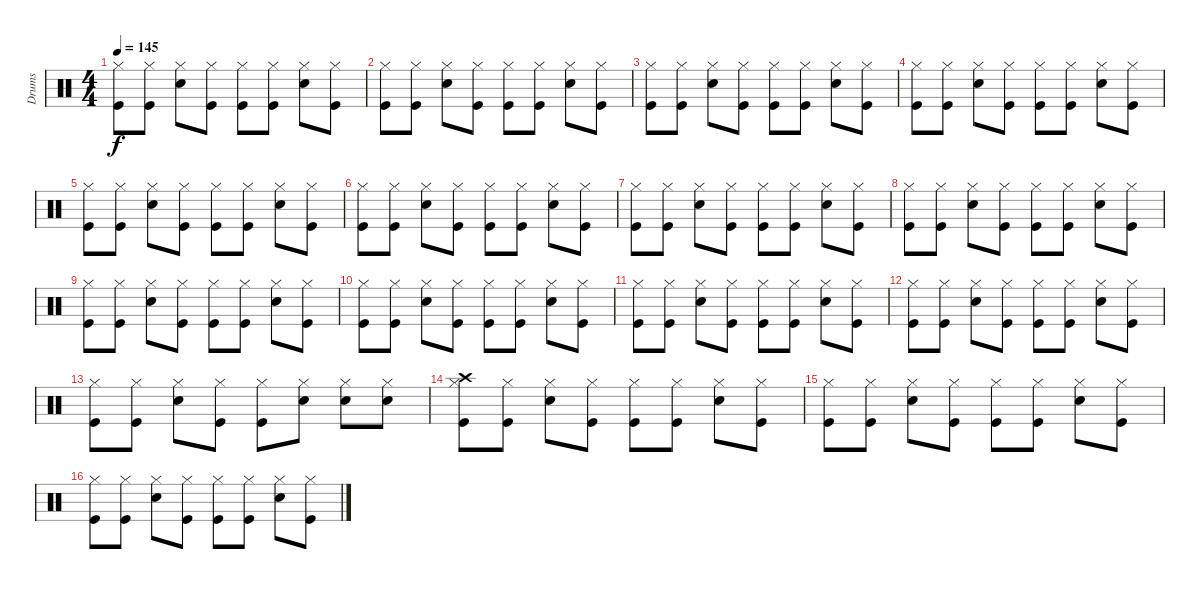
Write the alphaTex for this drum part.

\track ("Drums" "Drums") {instrument percussion}
\staff {score}
\articulation defaults
\ts (4 4)
\tempo 145
\clef neutral
\ks c
("Kick (hit)" "Hi-Hat (closed)").8{dy f} ("Kick (hit)" "Hi-Hat (closed)").8 ("Hi-Hat (closed)" "Snare (hit) 2").8 ("Kick (hit)" "Hi-Hat (closed)").8 ("Kick (hit)" "Hi-Hat (closed)").8 ("Kick (hit)" "Hi-Hat (closed)").8 ("Hi-Hat (closed)" "Snare (hit) 2").8 ("Kick (hit)" "Hi-Hat (closed)").8 |
("Kick (hit)" "Hi-Hat (closed)").8 ("Kick (hit)" "Hi-Hat (closed)").8 ("Hi-Hat (closed)" "Snare (hit) 2").8 ("Kick (hit)" "Hi-Hat (closed)").8 ("Kick (hit)" "Hi-Hat (closed)").8 ("Kick (hit)" "Hi-Hat (closed)").8 ("Hi-Hat (closed)" "Snare (hit) 2").8 ("Kick (hit)" "Hi-Hat (closed)").8 |
("Kick (hit)" "Hi-Hat (closed)").8 ("Kick (hit)" "Hi-Hat (closed)").8 ("Hi-Hat (closed)" "Snare (hit) 2").8 ("Kick (hit)" "Hi-Hat (closed)").8 ("Kick (hit)" "Hi-Hat (closed)").8 ("Kick (hit)" "Hi-Hat (closed)").8 ("Hi-Hat (closed)" "Snare (hit) 2").8 ("Kick (hit)" "Hi-Hat (closed)").8 |
("Kick (hit)" "Hi-Hat (closed)").8 ("Kick (hit)" "Hi-Hat (closed)").8 ("Hi-Hat (closed)" "Snare (hit) 2").8 ("Kick (hit)" "Hi-Hat (closed)").8 ("Kick (hit)" "Hi-Hat (closed)").8 ("Kick (hit)" "Hi-Hat (closed)").8 ("Hi-Hat (closed)" "Snare (hit) 2").8 ("Kick (hit)" "Hi-Hat (closed)").8 |
("Kick (hit)" "Hi-Hat (closed)").8 ("Kick (hit)" "Hi-Hat (closed)").8 ("Hi-Hat (closed)" "Snare (hit) 2").8 ("Kick (hit)" "Hi-Hat (closed)").8 ("Kick (hit)" "Hi-Hat (closed)").8 ("Kick (hit)" "Hi-Hat (closed)").8 ("Hi-Hat (closed)" "Snare (hit) 2").8 ("Kick (hit)" "Hi-Hat (closed)").8 |
("Kick (hit)" "Hi-Hat (closed)").8 ("Kick (hit)" "Hi-Hat (closed)").8 ("Hi-Hat (closed)" "Snare (hit) 2").8 ("Kick (hit)" "Hi-Hat (closed)").8 ("Kick (hit)" "Hi-Hat (closed)").8 ("Kick (hit)" "Hi-Hat (closed)").8 ("Hi-Hat (closed)" "Snare (hit) 2").8 ("Kick (hit)" "Hi-Hat (closed)").8 |
("Kick (hit)" "Hi-Hat (closed)").8 ("Kick (hit)" "Hi-Hat (closed)").8 ("Hi-Hat (closed)" "Snare (hit) 2").8 ("Kick (hit)" "Hi-Hat (closed)").8 ("Kick (hit)" "Hi-Hat (closed)").8 ("Kick (hit)" "Hi-Hat (closed)").8 ("Hi-Hat (closed)" "Snare (hit) 2").8 ("Kick (hit)" "Hi-Hat (closed)").8 |
("Kick (hit)" "Hi-Hat (closed)").8 ("Kick (hit)" "Hi-Hat (closed)").8 ("Hi-Hat (closed)" "Snare (hit) 2").8 ("Kick (hit)" "Hi-Hat (closed)").8 ("Kick (hit)" "Hi-Hat (closed)").8 ("Kick (hit)" "Hi-Hat (closed)").8 ("Hi-Hat (closed)" "Snare (hit) 2").8 ("Kick (hit)" "Hi-Hat (closed)").8 |
("Kick (hit)" "Hi-Hat (closed)").8 ("Kick (hit)" "Hi-Hat (closed)").8 ("Hi-Hat (closed)" "Snare (hit) 2").8 ("Kick (hit)" "Hi-Hat (closed)").8 ("Kick (hit)" "Hi-Hat (closed)").8 ("Kick (hit)" "Hi-Hat (closed)").8 ("Hi-Hat (closed)" "Snare (hit) 2").8 ("Kick (hit)" "Hi-Hat (closed)").8 |
("Kick (hit)" "Hi-Hat (closed)").8 ("Kick (hit)" "Hi-Hat (closed)").8 ("Hi-Hat (closed)" "Snare (hit) 2").8 ("Kick (hit)" "Hi-Hat (closed)").8 ("Kick (hit)" "Hi-Hat (closed)").8 ("Kick (hit)" "Hi-Hat (closed)").8 ("Hi-Hat (closed)" "Snare (hit) 2").8 ("Kick (hit)" "Hi-Hat (closed)").8 |
("Kick (hit)" "Hi-Hat (closed)").8 ("Kick (hit)" "Hi-Hat (closed)").8 ("Hi-Hat (closed)" "Snare (hit) 2").8 ("Kick (hit)" "Hi-Hat (closed)").8 ("Kick (hit)" "Hi-Hat (closed)").8 ("Kick (hit)" "Hi-Hat (closed)").8 ("Hi-Hat (closed)" "Snare (hit) 2").8 ("Kick (hit)" "Hi-Hat (closed)").8 |
("Kick (hit)" "Hi-Hat (closed)").8 ("Kick (hit)" "Hi-Hat (closed)").8 ("Hi-Hat (closed)" "Snare (hit) 2").8 ("Kick (hit)" "Hi-Hat (closed)").8 ("Kick (hit)" "Hi-Hat (closed)").8 ("Kick (hit)" "Hi-Hat (closed)").8 ("Hi-Hat (closed)" "Snare (hit) 2").8 ("Kick (hit)" "Hi-Hat (closed)").8 |
("Kick (hit)" "Hi-Hat (closed)").8 ("Kick (hit)" "Hi-Hat (closed)").8 ("Hi-Hat (closed)" "Snare (hit) 2").8 ("Kick (hit)" "Hi-Hat (closed)").8 ("Kick (hit)" "Hi-Hat (closed)").8 ("Hi-Hat (closed)" "Snare (hit) 2").8 ("Hi-Hat (closed)" "Snare (hit) 2").8 ("Hi-Hat (closed)" "Snare (hit) 2").8 |
("Kick (hit)" "Hi-Hat (closed)" "Crash high (hit)").8 ("Kick (hit)" "Hi-Hat (closed)").8 ("Hi-Hat (closed)" "Snare (hit) 2").8 ("Kick (hit)" "Hi-Hat (closed)").8 ("Kick (hit)" "Hi-Hat (closed)").8 ("Kick (hit)" "Hi-Hat (closed)").8 ("Hi-Hat (closed)" "Snare (hit) 2").8 ("Kick (hit)" "Hi-Hat (closed)").8 |
("Kick (hit)" "Hi-Hat (closed)").8 ("Kick (hit)" "Hi-Hat (closed)").8 ("Hi-Hat (closed)" "Snare (hit) 2").8 ("Kick (hit)" "Hi-Hat (closed)").8 ("Kick (hit)" "Hi-Hat (closed)").8 ("Kick (hit)" "Hi-Hat (closed)").8 ("Hi-Hat (closed)" "Snare (hit) 2").8 ("Kick (hit)" "Hi-Hat (closed)").8 |
("Kick (hit)" "Hi-Hat (closed)").8 ("Kick (hit)" "Hi-Hat (closed)").8 ("Hi-Hat (closed)" "Snare (hit) 2").8 ("Kick (hit)" "Hi-Hat (closed)").8 ("Kick (hit)" "Hi-Hat (closed)").8 ("Kick (hit)" "Hi-Hat (closed)").8 ("Hi-Hat (closed)" "Snare (hit) 2").8 ("Kick (hit)" "Hi-Hat (closed)").8
